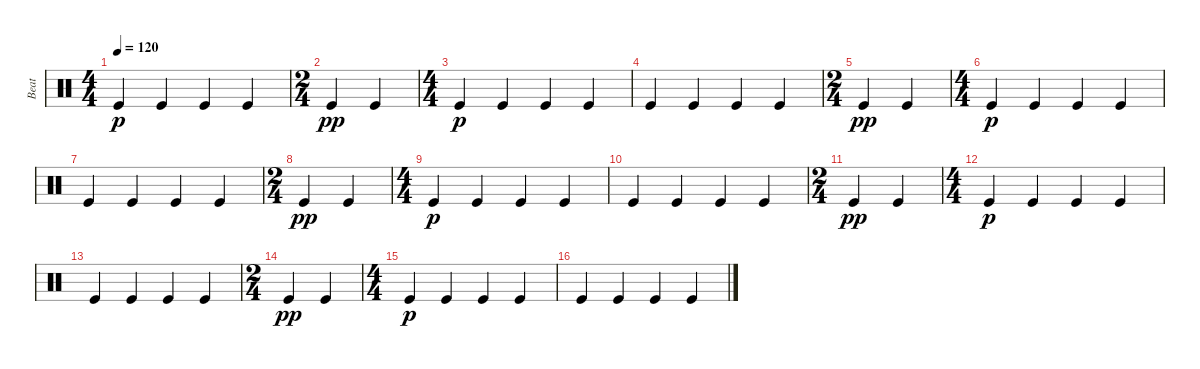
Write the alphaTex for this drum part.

\track ("Beat" "Beat") {instrument percussion}
\staff {score}
\articulation defaults
\ts (4 4)
\tempo 120
\clef neutral
\ks c "Kick (hit)".4{dy p} "Kick (hit)".4 "Kick (hit)".4 "Kick (hit)".4
|
\ts (2 4)
"Kick (hit)".4{dy pp} "Kick (hit)".4 |
\ts (4 4)
"Kick (hit)".4{dy p} "Kick (hit)".4 "Kick (hit)".4 "Kick (hit)".4 |
"Kick (hit)".4 "Kick (hit)".4 "Kick (hit)".4 "Kick (hit)".4 |
\ts (2 4)
"Kick (hit)".4{dy pp} "Kick (hit)".4 |
\ts (4 4)
"Kick (hit)".4{dy p} "Kick (hit)".4 "Kick (hit)".4 "Kick (hit)".4 |
"Kick (hit)".4 "Kick (hit)".4 "Kick (hit)".4 "Kick (hit)".4 |
\ts (2 4)
"Kick (hit)".4{dy pp} "Kick (hit)".4 |
\ts (4 4)
"Kick (hit)".4{dy p} "Kick (hit)".4 "Kick (hit)".4 "Kick (hit)".4 |
"Kick (hit)".4 "Kick (hit)".4 "Kick (hit)".4 "Kick (hit)".4 |
\ts (2 4)
"Kick (hit)".4{dy pp} "Kick (hit)".4 |
\ts (4 4)
"Kick (hit)".4{dy p} "Kick (hit)".4 "Kick (hit)".4 "Kick (hit)".4 |
"Kick (hit)".4 "Kick (hit)".4 "Kick (hit)".4 "Kick (hit)".4 |
\ts (2 4)
"Kick (hit)".4{dy pp} "Kick (hit)".4 |
\ts (4 4)
"Kick (hit)".4{dy p} "Kick (hit)".4 "Kick (hit)".4 "Kick (hit)".4 |
"Kick (hit)".4 "Kick (hit)".4 "Kick (hit)".4 "Kick (hit)".4
